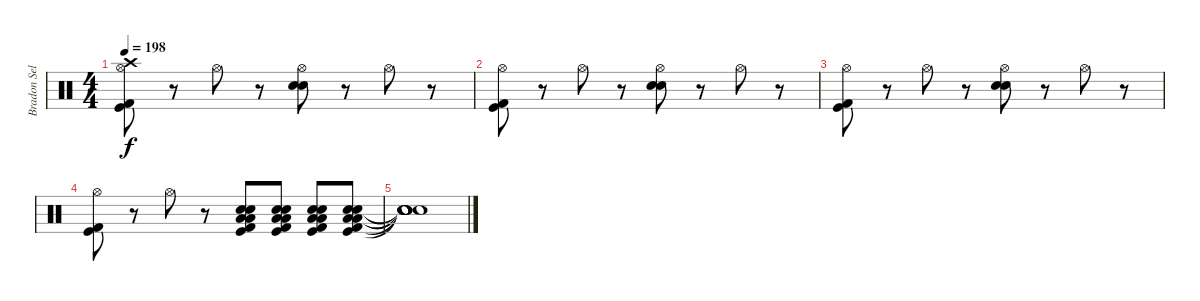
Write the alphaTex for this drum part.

\track ("Bradon Sellar" "Bradon Sel") {instrument percussion}
\staff {score}
\articulation defaults
\ts (4 4)
\tempo 198
\clef neutral
\ks c
("Crash high (hit)" "Hi-Hat (open)" "Kick (hit) 2" "Kick (hit)").8{dy f} r.8 "Hi-Hat (open)".8 r.8 ("Hi-Hat (open)" "Electric Snare (hit)" "Snare (hit) 2").8 r.8 "Hi-Hat (open)".8 r.8 |
("Hi-Hat (open)" "Kick (hit) 2" "Kick (hit)").8 r.8 "Hi-Hat (open)".8 r.8 ("Hi-Hat (open)" "Electric Snare (hit)" "Snare (hit) 2").8 r.8 "Hi-Hat (open)".8 r.8 |
("Hi-Hat (open)" "Kick (hit) 2" "Kick (hit)").8 r.8 "Hi-Hat (open)".8 r.8 ("Hi-Hat (open)" "Electric Snare (hit)" "Snare (hit) 2").8 r.8 "Hi-Hat (open)".8 r.8 |
("Hi-Hat (open)" "Kick (hit) 2" "Kick (hit)").8 r.8 "Hi-Hat (open)".8 r.8 ("Electric Snare (hit)" "Snare (hit) 2" "Low Floor Tom (hit)" "Low Floor Tom (hit)" "Kick (hit) 2" "Kick (hit)").8 ("Electric Snare (hit)" "Snare (hit) 2" "Low Floor Tom (hit)" "Low Floor Tom (hit)" "Kick (hit) 2" "Kick (hit)").8 ("Electric Snare (hit)" "Snare (hit) 2" "Low Floor Tom (hit)" "Low Floor Tom (hit)" "Kick (hit) 2" "Kick (hit)").8 ("Electric Snare (hit)" "Snare (hit) 2" "Low Floor Tom (hit)" "Low Floor Tom (hit)" "Kick (hit) 2" "Kick (hit)").8 |
("Snare (hit)"{t} "Snare (hit)"{t} "Snare (hit)"{t} "Snare (hit)"{t} "Snare (hit)"{t} "Snare (hit)"{t}).1
